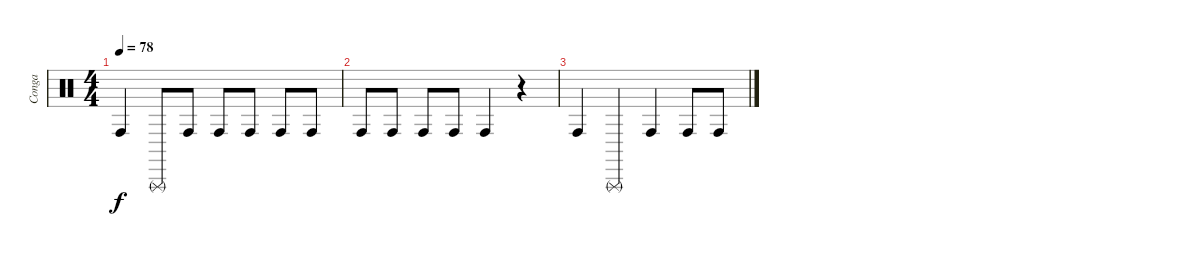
\track ("Conga" "Conga") {instrument percussion}
\staff {score}
\articulation defaults
\ts (4 4)
\tempo 78
\clef neutral
\ks c "Conga high (hit)".4{dy f} "Triangle (rnute)".8 "Conga high (hit)".8 "Conga high (hit)".8 "Conga high (hit)".8 "Conga high (hit)".8 "Conga high (hit)".8
|
"Conga high (hit)".8 "Conga high (hit)".8 "Conga high (hit)".8 "Conga high (hit)".8 "Conga high (hit)".4 r.4 |
"Conga high (hit)".4 "Triangle (rnute)".4 "Conga high (hit)".4 "Conga high (hit)".8 "Conga high (hit)".8
